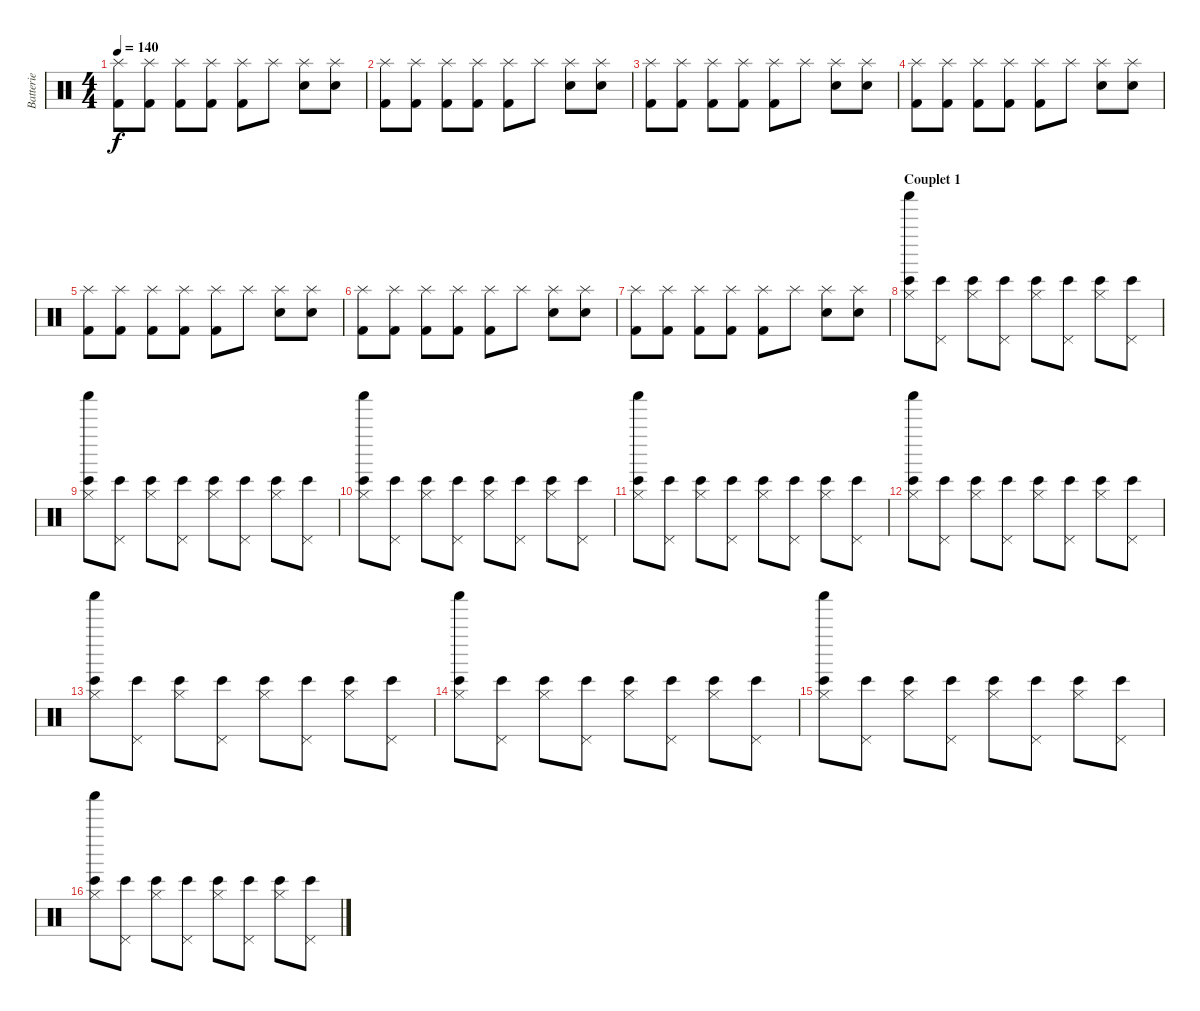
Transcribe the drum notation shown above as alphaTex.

\track ("Batterie" "Batterie") {instrument percussion}
\staff {score}
\articulation defaults
\ts (4 4)
\tempo 140
\clef neutral
\ks c
("Splash (hit)" "Kick (hit) 2").8{dy f} ("Splash (hit)" "Kick (hit) 2").8 ("Splash (hit)" "Kick (hit) 2").8 ("Splash (hit)" "Kick (hit) 2").8 ("Splash (hit)" "Kick (hit) 2").8 "Splash (hit)".8 ("Splash (hit)" "Snare (hit) 2").8 ("Splash (hit)" "Snare (hit) 2").8 |
("Splash (hit)" "Kick (hit) 2").8 ("Splash (hit)" "Kick (hit) 2").8 ("Splash (hit)" "Kick (hit) 2").8 ("Splash (hit)" "Kick (hit) 2").8 ("Splash (hit)" "Kick (hit) 2").8 "Splash (hit)".8 ("Splash (hit)" "Snare (hit) 2").8 ("Splash (hit)" "Snare (hit) 2").8 |
("Splash (hit)" "Kick (hit) 2").8 ("Splash (hit)" "Kick (hit) 2").8 ("Splash (hit)" "Kick (hit) 2").8 ("Splash (hit)" "Kick (hit) 2").8 ("Splash (hit)" "Kick (hit) 2").8 "Splash (hit)".8 ("Splash (hit)" "Snare (hit) 2").8 ("Splash (hit)" "Snare (hit) 2").8 |
("Splash (hit)" "Kick (hit) 2").8 ("Splash (hit)" "Kick (hit) 2").8 ("Splash (hit)" "Kick (hit) 2").8 ("Splash (hit)" "Kick (hit) 2").8 ("Splash (hit)" "Kick (hit) 2").8 "Splash (hit)".8 ("Splash (hit)" "Snare (hit) 2").8 ("Splash (hit)" "Snare (hit) 2").8 |
("Splash (hit)" "Kick (hit) 2").8 ("Splash (hit)" "Kick (hit) 2").8 ("Splash (hit)" "Kick (hit) 2").8 ("Splash (hit)" "Kick (hit) 2").8 ("Splash (hit)" "Kick (hit) 2").8 "Splash (hit)".8 ("Splash (hit)" "Snare (hit) 2").8 ("Splash (hit)" "Snare (hit) 2").8 |
("Splash (hit)" "Kick (hit) 2").8 ("Splash (hit)" "Kick (hit) 2").8 ("Splash (hit)" "Kick (hit) 2").8 ("Splash (hit)" "Kick (hit) 2").8 ("Splash (hit)" "Kick (hit) 2").8 "Splash (hit)".8 ("Splash (hit)" "Snare (hit) 2").8 ("Splash (hit)" "Snare (hit) 2").8 |
("Splash (hit)" "Kick (hit) 2").8 ("Splash (hit)" "Kick (hit) 2").8 ("Splash (hit)" "Kick (hit) 2").8 ("Splash (hit)" "Kick (hit) 2").8 ("Splash (hit)" "Kick (hit) 2").8 "Splash (hit)".8 ("Splash (hit)" "Snare (hit) 2").8 ("Splash (hit)" "Snare (hit) 2").8 |
\section ("" "Couplet 1")
("Bongo High (hit)" "Shaker (hit)" "Hi-Hat (closed)").8{volume 8} ("Bongo High (hit)" "Pedal Hi-Hat (hit)").8 ("Bongo High (hit)" "Hi-Hat (closed)").8 ("Bongo High (hit)" "Pedal Hi-Hat (hit)").8 ("Bongo High (hit)" "Hi-Hat (closed)").8 ("Bongo High (hit)" "Pedal Hi-Hat (hit)").8 ("Bongo High (hit)" "Hi-Hat (closed)").8 ("Bongo High (hit)" "Pedal Hi-Hat (hit)").8 |
("Bongo High (hit)" "Shaker (hit)" "Hi-Hat (closed)").8 ("Bongo High (hit)" "Pedal Hi-Hat (hit)").8 ("Bongo High (hit)" "Hi-Hat (closed)").8 ("Bongo High (hit)" "Pedal Hi-Hat (hit)").8 ("Bongo High (hit)" "Hi-Hat (closed)").8 ("Bongo High (hit)" "Pedal Hi-Hat (hit)").8 ("Bongo High (hit)" "Hi-Hat (closed)").8 ("Bongo High (hit)" "Pedal Hi-Hat (hit)").8 |
("Bongo High (hit)" "Shaker (hit)" "Hi-Hat (closed)").8 ("Bongo High (hit)" "Pedal Hi-Hat (hit)").8 ("Bongo High (hit)" "Hi-Hat (closed)").8 ("Bongo High (hit)" "Pedal Hi-Hat (hit)").8 ("Bongo High (hit)" "Hi-Hat (closed)").8 ("Bongo High (hit)" "Pedal Hi-Hat (hit)").8 ("Bongo High (hit)" "Hi-Hat (closed)").8 ("Bongo High (hit)" "Pedal Hi-Hat (hit)").8 |
("Bongo High (hit)" "Shaker (hit)" "Hi-Hat (closed)").8 ("Bongo High (hit)" "Pedal Hi-Hat (hit)").8 ("Bongo High (hit)" "Hi-Hat (closed)").8 ("Bongo High (hit)" "Pedal Hi-Hat (hit)").8 ("Bongo High (hit)" "Hi-Hat (closed)").8 ("Bongo High (hit)" "Pedal Hi-Hat (hit)").8 ("Bongo High (hit)" "Hi-Hat (closed)").8 ("Bongo High (hit)" "Pedal Hi-Hat (hit)").8 |
("Bongo High (hit)" "Shaker (hit)" "Hi-Hat (closed)").8 ("Bongo High (hit)" "Pedal Hi-Hat (hit)").8 ("Bongo High (hit)" "Hi-Hat (closed)").8 ("Bongo High (hit)" "Pedal Hi-Hat (hit)").8 ("Bongo High (hit)" "Hi-Hat (closed)").8 ("Bongo High (hit)" "Pedal Hi-Hat (hit)").8 ("Bongo High (hit)" "Hi-Hat (closed)").8 ("Bongo High (hit)" "Pedal Hi-Hat (hit)").8 |
("Bongo High (hit)" "Shaker (hit)" "Hi-Hat (closed)").8 ("Bongo High (hit)" "Pedal Hi-Hat (hit)").8 ("Bongo High (hit)" "Hi-Hat (closed)").8 ("Bongo High (hit)" "Pedal Hi-Hat (hit)").8 ("Bongo High (hit)" "Hi-Hat (closed)").8 ("Bongo High (hit)" "Pedal Hi-Hat (hit)").8 ("Bongo High (hit)" "Hi-Hat (closed)").8 ("Bongo High (hit)" "Pedal Hi-Hat (hit)").8 |
("Bongo High (hit)" "Shaker (hit)" "Hi-Hat (closed)").8 ("Bongo High (hit)" "Pedal Hi-Hat (hit)").8 ("Bongo High (hit)" "Hi-Hat (closed)").8 ("Bongo High (hit)" "Pedal Hi-Hat (hit)").8 ("Bongo High (hit)" "Hi-Hat (closed)").8 ("Bongo High (hit)" "Pedal Hi-Hat (hit)").8 ("Bongo High (hit)" "Hi-Hat (closed)").8 ("Bongo High (hit)" "Pedal Hi-Hat (hit)").8 |
("Bongo High (hit)" "Shaker (hit)" "Hi-Hat (closed)").8 ("Bongo High (hit)" "Pedal Hi-Hat (hit)").8 ("Bongo High (hit)" "Hi-Hat (closed)").8 ("Bongo High (hit)" "Pedal Hi-Hat (hit)").8 ("Bongo High (hit)" "Hi-Hat (closed)").8 ("Bongo High (hit)" "Pedal Hi-Hat (hit)").8 ("Bongo High (hit)" "Hi-Hat (closed)").8 ("Bongo High (hit)" "Pedal Hi-Hat (hit)").8 |
("Bongo High (hit)" "Shaker (hit)" "Hi-Hat (closed)").8 ("Bongo High (hit)" "Pedal Hi-Hat (hit)").8 ("Bongo High (hit)" "Hi-Hat (closed)").8 ("Bongo High (hit)" "Pedal Hi-Hat (hit)").8 ("Bongo High (hit)" "Hi-Hat (closed)").8 ("Bongo High (hit)" "Pedal Hi-Hat (hit)").8 ("Bongo High (hit)" "Hi-Hat (closed)").8 ("Bongo High (hit)" "Pedal Hi-Hat (hit)").8
